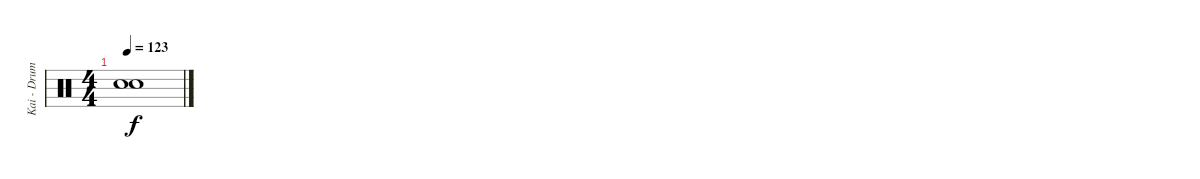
\track ("Kai - Drums" "Kai - Drum") {instrument percussion}
\staff {score}
\articulation defaults
\ts (4 4)
\tempo 123
\clef neutral
\ks c
("Snare (hit)"{t} "Snare (hit)"{t}).1{dy f}
